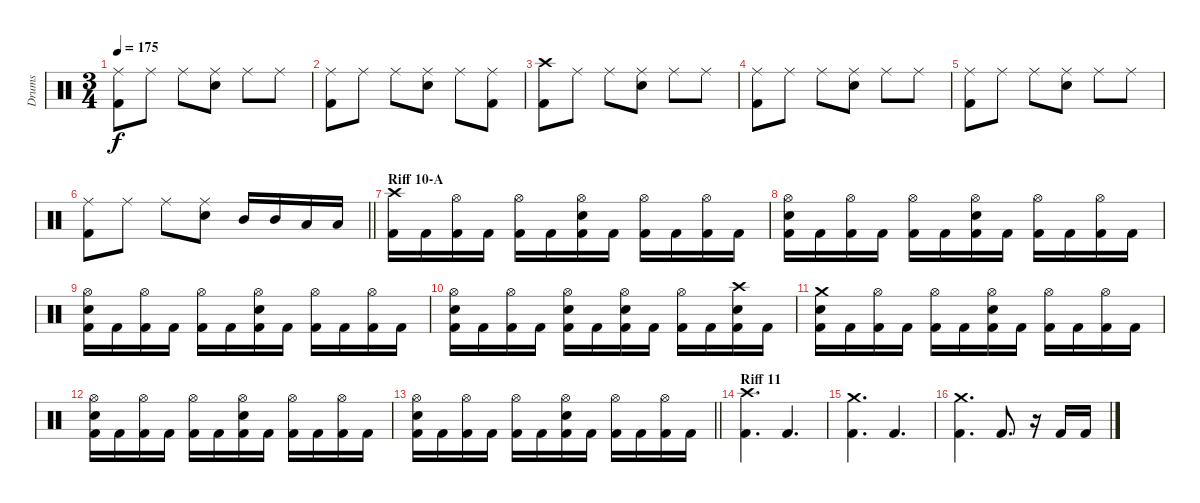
\track ("Drums" "Drums") {instrument percussion}
\staff {score}
\articulation defaults
\ts (3 4)
\tempo 175
\clef neutral
\ks c
("Ride (middle)" "Kick (hit) 2").8{dy f} "Ride (middle)".8 "Ride (middle)".8 ("Ride (middle)" "Electric Snare (hit)").8 "Ride (middle)".8 "Ride (middle)".8 |
("Ride (middle)" "Kick (hit) 2").8 "Ride (middle)".8 "Ride (middle)".8 ("Ride (middle)" "Electric Snare (hit)").8 "Ride (middle)".8 ("Ride (middle)" "Kick (hit) 2").8 |
("Crash high (hit)" "Kick (hit) 2").8 "Ride (middle)".8 "Ride (middle)".8 ("Ride (middle)" "Electric Snare (hit)").8 "Ride (middle)".8 "Ride (middle)".8 |
("Ride (middle)" "Kick (hit) 2").8 "Ride (middle)".8 "Ride (middle)".8 ("Ride (middle)" "Electric Snare (hit)").8 "Ride (middle)".8 "Ride (middle)".8 |
("Ride (middle)" "Kick (hit) 2").8 "Ride (middle)".8 "Ride (middle)".8 ("Ride (middle)" "Electric Snare (hit)").8 "Ride (middle)".8 "Ride (middle)".8 |
\barLineRight lightlight
("Ride (middle)" "Kick (hit) 2").8 "Ride (middle)".8 "Ride (middle)".8 ("Ride (middle)" "Electric Snare (hit)").8 "Mid Tom (hit)".16 "Mid Tom (hit)".16 "Low Tom (hit)".16 "Low Tom (hit)".16 |
\section ("" "Riff 10-A")
("Crash high (hit)" "Kick (hit) 2").16 "Kick (hit) 2".16 ("Hi-Hat (open)" "Kick (hit) 2").16 "Kick (hit) 2".16 ("Hi-Hat (open)" "Kick (hit) 2").16 "Kick (hit) 2".16 ("Hi-Hat (open)" "Electric Snare (hit)" "Kick (hit) 2").16 "Kick (hit) 2".16 ("Hi-Hat (open)" "Kick (hit) 2").16 "Kick (hit) 2".16 ("Hi-Hat (open)" "Kick (hit) 2").16 "Kick (hit) 2".16 |
("Hi-Hat (open)" "Electric Snare (hit)" "Kick (hit) 2").16 "Kick (hit) 2".16 ("Hi-Hat (open)" "Kick (hit) 2").16 "Kick (hit) 2".16 ("Hi-Hat (open)" "Kick (hit) 2").16 "Kick (hit) 2".16 ("Hi-Hat (open)" "Electric Snare (hit)" "Kick (hit) 2").16 "Kick (hit) 2".16 ("Hi-Hat (open)" "Kick (hit) 2").16 "Kick (hit) 2".16 ("Hi-Hat (open)" "Kick (hit) 2").16 "Kick (hit) 2".16 |
("Hi-Hat (open)" "Electric Snare (hit)" "Kick (hit) 2").16 "Kick (hit) 2".16 ("Hi-Hat (open)" "Kick (hit) 2").16 "Kick (hit) 2".16 ("Hi-Hat (open)" "Kick (hit) 2").16 "Kick (hit) 2".16 ("Hi-Hat (open)" "Electric Snare (hit)" "Kick (hit) 2").16 "Kick (hit) 2".16 ("Hi-Hat (open)" "Kick (hit) 2").16 "Kick (hit) 2".16 ("Hi-Hat (open)" "Kick (hit) 2").16 "Kick (hit) 2".16 |
("Hi-Hat (open)" "Electric Snare (hit)" "Kick (hit) 2").16 "Kick (hit) 2".16 ("Hi-Hat (open)" "Kick (hit) 2").16 "Kick (hit) 2".16 ("Hi-Hat (open)" "Electric Snare (hit)" "Kick (hit) 2").16 "Kick (hit) 2".16 ("Hi-Hat (open)" "Electric Snare (hit)" "Kick (hit) 2").16 "Kick (hit) 2".16 ("Hi-Hat (open)" "Kick (hit) 2").16 "Kick (hit) 2".16 ("Crash high (hit)" "Electric Snare (hit)" "Kick (hit) 2").16 "Kick (hit) 2".16 |
("Crash medium (hit)" "Electric Snare (hit)" "Kick (hit) 2").16 "Kick (hit) 2".16 ("Hi-Hat (open)" "Kick (hit) 2").16 "Kick (hit) 2".16 ("Hi-Hat (open)" "Kick (hit) 2").16 "Kick (hit) 2".16 ("Hi-Hat (open)" "Electric Snare (hit)" "Kick (hit) 2").16 "Kick (hit) 2".16 ("Hi-Hat (open)" "Kick (hit) 2").16 "Kick (hit) 2".16 ("Hi-Hat (open)" "Kick (hit) 2").16 "Kick (hit) 2".16 |
("Hi-Hat (open)" "Electric Snare (hit)" "Kick (hit) 2").16 "Kick (hit) 2".16 ("Hi-Hat (open)" "Kick (hit) 2").16 "Kick (hit) 2".16 ("Hi-Hat (open)" "Kick (hit) 2").16 "Kick (hit) 2".16 ("Hi-Hat (open)" "Electric Snare (hit)" "Kick (hit) 2").16 "Kick (hit) 2".16 ("Hi-Hat (open)" "Kick (hit) 2").16 "Kick (hit) 2".16 ("Hi-Hat (open)" "Kick (hit) 2").16 "Kick (hit) 2".16 |
\barLineRight lightlight
("Hi-Hat (open)" "Electric Snare (hit)" "Kick (hit) 2").16 "Kick (hit) 2".16 ("Hi-Hat (open)" "Kick (hit) 2").16 "Kick (hit) 2".16 ("Hi-Hat (open)" "Kick (hit) 2").16 "Kick (hit) 2".16 ("Hi-Hat (open)" "Electric Snare (hit)" "Kick (hit) 2").16 "Kick (hit) 2".16 ("Hi-Hat (open)" "Kick (hit) 2").16 "Kick (hit) 2".16 ("Hi-Hat (open)" "Kick (hit) 2").16 "Kick (hit) 2".16 |
\section ("" "Riff 11")
("Crash high (hit)" "Kick (hit) 2").4{d} "Kick (hit) 2".4{d} |
("Crash medium (hit)" "Kick (hit) 2").4{d} "Kick (hit) 2".4{d} |
("Crash medium (hit)" "Kick (hit) 2").4{d} "Kick (hit) 2".8{d} r.16 "Kick (hit) 2".16 "Kick (hit) 2".16
